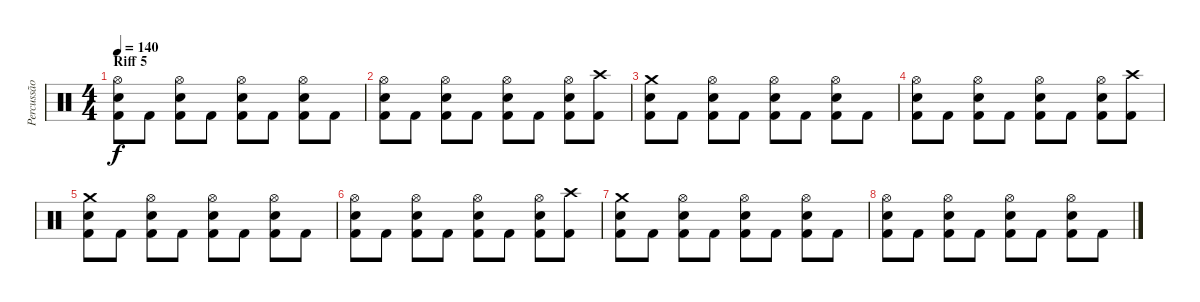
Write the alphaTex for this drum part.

\track ("Percussão" "Percussão") {instrument percussion}
\staff {score}
\articulation defaults
\ts (4 4)
\section ("" "Riff 5")
\tempo 140
\clef neutral
\ks c
("Hi-Hat (open)" "Snare (hit) 2" "Kick (hit) 2").8{dy f} "Kick (hit) 2".8 ("Hi-Hat (open)" "Snare (hit) 2" "Kick (hit) 2").8 "Kick (hit) 2".8 ("Hi-Hat (open)" "Snare (hit) 2" "Kick (hit) 2").8 "Kick (hit) 2".8 ("Hi-Hat (open)" "Snare (hit) 2" "Kick (hit) 2").8 "Kick (hit) 2".8 |
("Hi-Hat (open)" "Snare (hit) 2" "Kick (hit) 2").8 "Kick (hit) 2".8 ("Hi-Hat (open)" "Snare (hit) 2" "Kick (hit) 2").8 "Kick (hit) 2".8 ("Hi-Hat (open)" "Snare (hit) 2" "Kick (hit) 2").8 "Kick (hit) 2".8 ("Hi-Hat (open)" "Snare (hit) 2" "Kick (hit) 2").8 ("Crash high (hit)" "Kick (hit) 2").8 |
("Crash medium (hit)" "Snare (hit) 2" "Kick (hit) 2").8 "Kick (hit) 2".8 ("Hi-Hat (open)" "Snare (hit) 2" "Kick (hit) 2").8 "Kick (hit) 2".8 ("Hi-Hat (open)" "Snare (hit) 2" "Kick (hit) 2").8 "Kick (hit) 2".8 ("Hi-Hat (open)" "Snare (hit) 2" "Kick (hit) 2").8 "Kick (hit) 2".8 |
("Hi-Hat (open)" "Snare (hit) 2" "Kick (hit) 2").8 "Kick (hit) 2".8 ("Hi-Hat (open)" "Snare (hit) 2" "Kick (hit) 2").8 "Kick (hit) 2".8 ("Hi-Hat (open)" "Snare (hit) 2" "Kick (hit) 2").8 "Kick (hit) 2".8 ("Hi-Hat (open)" "Snare (hit) 2" "Kick (hit) 2").8 ("Crash high (hit)" "Kick (hit) 2").8 |
("Crash medium (hit)" "Snare (hit) 2" "Kick (hit) 2").8 "Kick (hit) 2".8 ("Hi-Hat (open)" "Snare (hit) 2" "Kick (hit) 2").8 "Kick (hit) 2".8 ("Hi-Hat (open)" "Snare (hit) 2" "Kick (hit) 2").8 "Kick (hit) 2".8 ("Hi-Hat (open)" "Snare (hit) 2" "Kick (hit) 2").8 "Kick (hit) 2".8 |
("Hi-Hat (open)" "Snare (hit) 2" "Kick (hit) 2").8 "Kick (hit) 2".8 ("Hi-Hat (open)" "Snare (hit) 2" "Kick (hit) 2").8 "Kick (hit) 2".8 ("Hi-Hat (open)" "Snare (hit) 2" "Kick (hit) 2").8 "Kick (hit) 2".8 ("Hi-Hat (open)" "Snare (hit) 2" "Kick (hit) 2").8 ("Crash high (hit)" "Kick (hit) 2").8 |
("Crash medium (hit)" "Snare (hit) 2" "Kick (hit) 2").8 "Kick (hit) 2".8 ("Hi-Hat (open)" "Snare (hit) 2" "Kick (hit) 2").8 "Kick (hit) 2".8 ("Hi-Hat (open)" "Snare (hit) 2" "Kick (hit) 2").8 "Kick (hit) 2".8 ("Hi-Hat (open)" "Snare (hit) 2" "Kick (hit) 2").8 "Kick (hit) 2".8 |
("Hi-Hat (open)" "Snare (hit) 2" "Kick (hit) 2").8 "Kick (hit) 2".8 ("Hi-Hat (open)" "Snare (hit) 2" "Kick (hit) 2").8 "Kick (hit) 2".8 ("Hi-Hat (open)" "Snare (hit) 2" "Kick (hit) 2").8 "Kick (hit) 2".8 ("Hi-Hat (open)" "Snare (hit) 2" "Kick (hit) 2").8 "Kick (hit) 2".8
